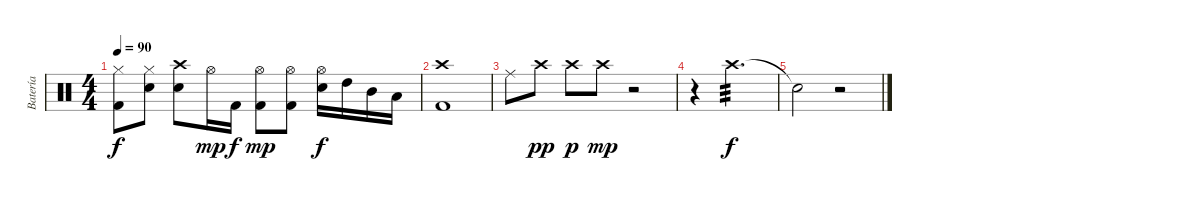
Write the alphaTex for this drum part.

\track ("Batería" "Batería") {instrument percussion}
\staff {score}
\articulation defaults
\ts (4 4)
\tempo 90
\clef neutral
\ks c
("Kick (hit) 2" "Hi-Hat (closed)").8{dy f} ("Electric Snare (hit)" "Hi-Hat (closed)").8 ("Electric Snare (hit)" "Crash high (hit)").8 "Hi-Hat (open)".16{dy mp} "Kick (hit) 2".16{dy f} ("Kick (hit) 2" "Hi-Hat (open)").8{dy mp} ("Kick (hit) 2" "Hi-Hat (open)").8 ("Electric Snare (hit)" "Hi-Hat (open)").16{dy f} "High Tom (hit)".16 "Mid Tom (hit)".16 "Low Tom (hit)".16 |
("Kick (hit) 2" "Crash high (hit)").1 |
"Ride (middle)".8 "Crash high (hit)".8{dy pp} "Crash high (hit)".8{dy p} "Crash high (hit)".8{dy mp} r.2 |
r.4{volume 0} "Crash high (hit)".2{d tp 3 dy f volume 13} |
"Snare (hit)"{t}.2 r.2
